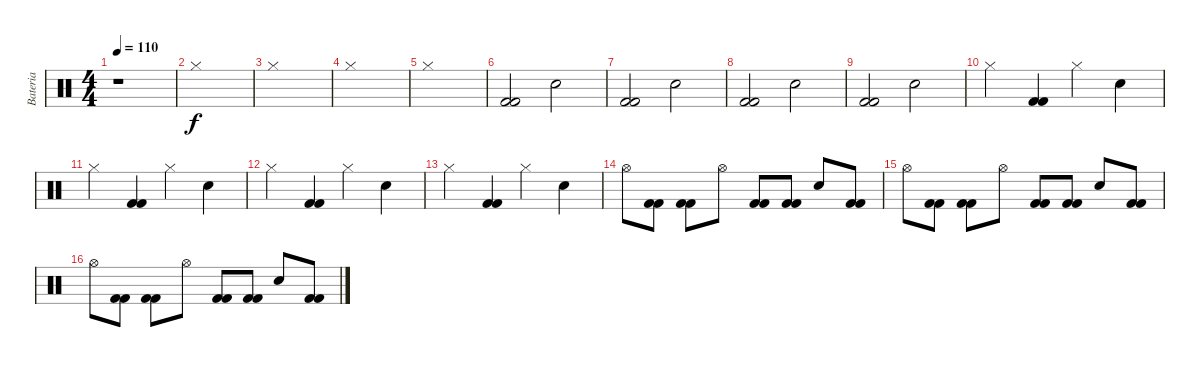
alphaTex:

\track ("Bateria" "Bateria") {instrument percussion}
\staff {score}
\articulation defaults
\ts (4 4)
\tempo 110
\clef neutral
\ks c
r.1{dy f} |
"Hi-Hat (closed)".1 |
"Hi-Hat (closed)".1 |
"Hi-Hat (closed)".1 |
"Hi-Hat (closed)".1 |
("Kick (hit) 2" "Kick (hit) 2").2 "Electric Snare (hit)".2 |
("Kick (hit) 2" "Kick (hit) 2").2 "Electric Snare (hit)".2 |
("Kick (hit) 2" "Kick (hit) 2").2 "Electric Snare (hit)".2 |
("Kick (hit) 2" "Kick (hit) 2").2 "Electric Snare (hit)".2 |
"Hi-Hat (closed)".4 ("Kick (hit) 2" "Kick (hit) 2").4 "Hi-Hat (closed)".4 "Electric Snare (hit)".4 |
"Hi-Hat (closed)".4 ("Kick (hit) 2" "Kick (hit) 2").4 "Hi-Hat (closed)".4 "Electric Snare (hit)".4 |
"Hi-Hat (closed)".4 ("Kick (hit) 2" "Kick (hit) 2").4 "Hi-Hat (closed)".4 "Electric Snare (hit)".4 |
"Hi-Hat (closed)".4 ("Kick (hit) 2" "Kick (hit) 2").4 "Hi-Hat (closed)".4 "Electric Snare (hit)".4 |
"Hi-Hat (open)".8 ("Kick (hit) 2" "Kick (hit) 2").8 ("Kick (hit) 2" "Kick (hit) 2").8 "Hi-Hat (open)".8 ("Kick (hit) 2" "Kick (hit) 2").8 ("Kick (hit) 2" "Kick (hit) 2").8 "Electric Snare (hit)".8 ("Kick (hit) 2" "Kick (hit) 2").8 |
"Hi-Hat (open)".8 ("Kick (hit) 2" "Kick (hit) 2").8 ("Kick (hit) 2" "Kick (hit) 2").8 "Hi-Hat (open)".8 ("Kick (hit) 2" "Kick (hit) 2").8 ("Kick (hit) 2" "Kick (hit) 2").8 "Electric Snare (hit)".8 ("Kick (hit) 2" "Kick (hit) 2").8 |
"Hi-Hat (open)".8 ("Kick (hit) 2" "Kick (hit) 2").8 ("Kick (hit) 2" "Kick (hit) 2").8 "Hi-Hat (open)".8 ("Kick (hit) 2" "Kick (hit) 2").8 ("Kick (hit) 2" "Kick (hit) 2").8 "Electric Snare (hit)".8 ("Kick (hit) 2" "Kick (hit) 2").8
